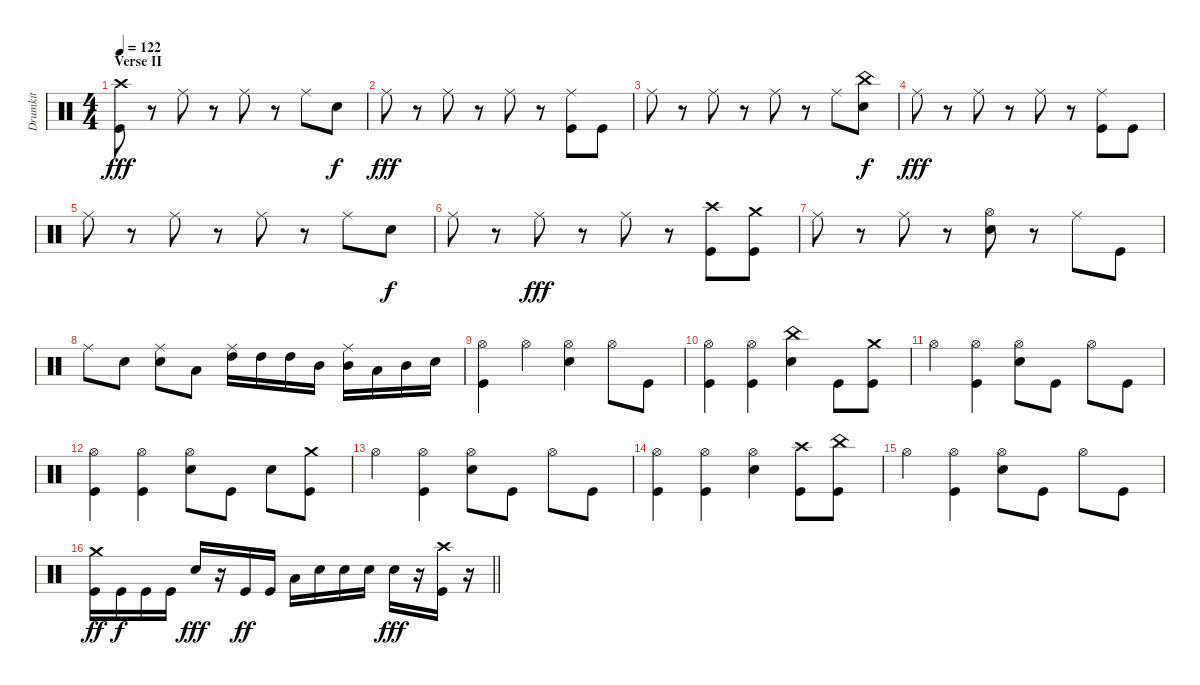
\track ("Drumkit" "Drumkit") {instrument percussion}
\staff {score}
\articulation defaults
\ts (4 4)
\section ("" "Verse II")
\tempo 122
\clef neutral
\ks c
("Crash high (hit)" "Kick (hit)").8{dy fff} r.8 "Ride (middle)".8 r.8 "Ride (middle)".8 r.8 "Ride (middle)".8 "Snare (hit) 2".8{dy f} |
"Ride (middle)".8{dy fff} r.8 "Ride (middle)".8 r.8 "Ride (middle)".8 r.8 ("Ride (middle)" "Kick (hit)").8 "Kick (hit)".8 |
"Ride (middle)".8 r.8 "Ride (middle)".8 r.8 "Ride (middle)".8 r.8 "Ride (middle)".8 ("Snare (hit) 2" "China (hit)").8{dy f} |
"Ride (middle)".8{dy fff} r.8 "Ride (middle)".8 r.8 "Ride (middle)".8 r.8 ("Ride (middle)" "Kick (hit)").8 "Kick (hit)".8 |
"Ride (middle)".8 r.8 "Ride (middle)".8 r.8 "Ride (middle)".8 r.8 "Ride (middle)".8 "Snare (hit) 2".8{dy f} |
"Ride (middle)".8 r.8 "Ride (middle)".8{dy fff} r.8 "Ride (middle)".8 r.8 ("Kick (hit)" "Crash high (hit)").8 ("Kick (hit)" "Crash medium (hit)").8 |
"Ride (middle)".8 r.8 "Ride (middle)".8 r.8 ("Snare (hit) 2" "Hi-Hat (open)").8 r.8 "Ride (middle)".8 "Kick (hit)".8 |
"Ride (middle)".8 "Snare (hit) 2".8 ("Snare (hit) 2" "Ride (middle)").8 "Low Tom (hit)".8 ("High Tom (hit)" "Ride (middle)").16 "High Tom (hit)".16 "High Tom (hit)".16 "Mid Tom (hit)".16 ("Mid Tom (hit)" "Ride (middle)").16 "Low Tom (hit)".16 "Mid Tom (hit)".16 "Snare (hit) 2".16 |
("Kick (hit)" "Hi-Hat (open)").4 "Hi-Hat (open)".4 ("Hi-Hat (open)" "Snare (hit) 2").4 "Hi-Hat (open)".8 "Kick (hit)".8 |
("Kick (hit)" "Hi-Hat (open)").4 ("Hi-Hat (open)" "Kick (hit)").4 ("Snare (hit) 2" "China (hit)").4 "Kick (hit)".8 ("Kick (hit)" "Crash medium (hit)").8 |
"Hi-Hat (open)".4 ("Hi-Hat (open)" "Kick (hit)").4 ("Hi-Hat (open)" "Snare (hit) 2").8 "Kick (hit)".8 "Hi-Hat (open)".8 "Kick (hit)".8 |
("Kick (hit)" "Hi-Hat (open)").4 ("Hi-Hat (open)" "Kick (hit)").4 ("Hi-Hat (open)" "Snare (hit) 2").8 "Kick (hit)".8 "Snare (hit) 2".8 ("Kick (hit)" "Crash medium (hit)").8 |
"Hi-Hat (open)".4 ("Hi-Hat (open)" "Kick (hit)").4 ("Hi-Hat (open)" "Snare (hit) 2").8 "Kick (hit)".8 "Hi-Hat (open)".8 "Kick (hit)".8 |
("Kick (hit)" "Hi-Hat (open)").4 ("Hi-Hat (open)" "Kick (hit)").4 ("Hi-Hat (open)" "Snare (hit) 2").4 ("Kick (hit)" "Crash high (hit)").8 ("Kick (hit)" "China (hit)").8 |
"Hi-Hat (open)".4 ("Hi-Hat (open)" "Kick (hit)").4 ("Hi-Hat (open)" "Snare (hit) 2").8 "Kick (hit)".8 "Hi-Hat (open)".8 "Kick (hit)".8 |
\barLineRight lightlight
("Crash medium (hit)" "Kick (hit)").16{dy ff} "Kick (hit)".16{dy f} "Kick (hit)".16 "Kick (hit)".16 "Snare (hit) 2".16{dy fff} r.16 "Kick (hit)".16{dy ff} "Kick (hit)".16 "Low Tom (hit)".16 "Snare (hit) 2".16 "Snare (hit) 2".16 "Snare (hit) 2".16 "Snare (hit) 2".16{dy fff} r.16 ("Crash high (hit)" "Kick (hit)").16 r.16
